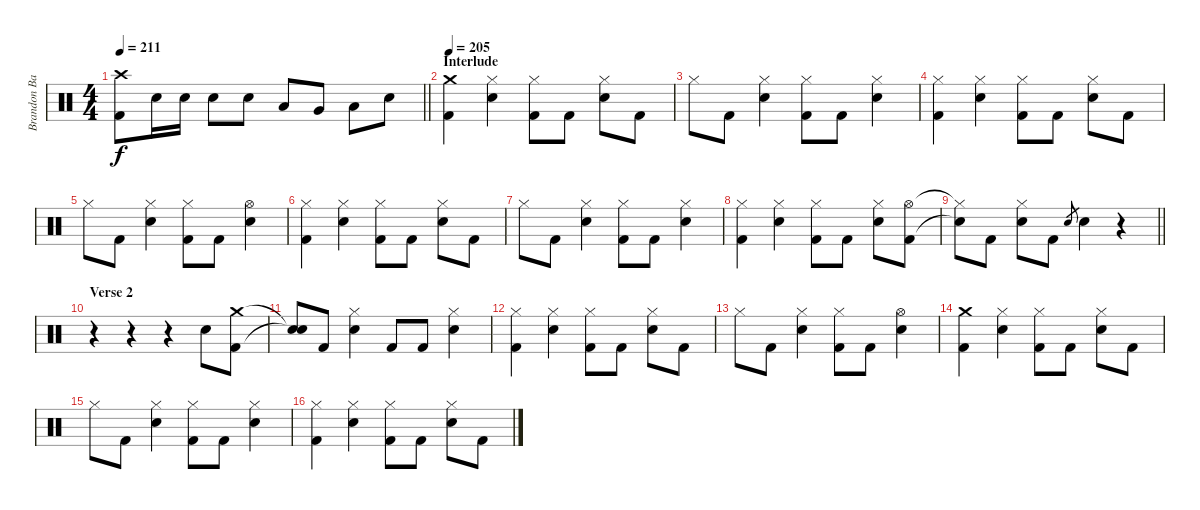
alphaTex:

\track ("Brandon Barnes - Drums" "Brandon Ba") {instrument percussion}
\staff {score}
\articulation defaults
\ts (4 4)
\tempo 211
\clef neutral
\barLineRight lightlight
\ks c
("Crash high (hit)" "Kick (hit) 2").8{dy f} "Electric Snare (hit)".16 "Electric Snare (hit)".16 "Electric Snare (hit)".8 "Electric Snare (hit)".8 "Low Tom (hit)".8 "Very Low Tom (hit)".8 "Low Floor Tom (hit)".8 "Electric Snare (hit)".8 |
\section ("" "Interlude")
\tempo 205
("Crash medium (hit)" "Kick (hit) 2").4 ("Hi-Hat (closed)" "Electric Snare (hit)").4 ("Hi-Hat (closed)" "Kick (hit) 2").8 "Kick (hit) 2".8 ("Hi-Hat (closed)" "Electric Snare (hit)").8 "Kick (hit) 2".8 |
"Hi-Hat (closed)".8 "Kick (hit) 2".8 ("Hi-Hat (closed)" "Electric Snare (hit)").4 ("Hi-Hat (closed)" "Kick (hit) 2").8 "Kick (hit) 2".8 ("Hi-Hat (closed)" "Electric Snare (hit)").4 |
("Hi-Hat (closed)" "Kick (hit) 2").4 ("Hi-Hat (closed)" "Electric Snare (hit)").4 ("Hi-Hat (closed)" "Kick (hit) 2").8 "Kick (hit) 2".8 ("Hi-Hat (closed)" "Electric Snare (hit)").8 "Kick (hit) 2".8 |
"Hi-Hat (closed)".8 "Kick (hit) 2".8 ("Hi-Hat (closed)" "Electric Snare (hit)").4 ("Hi-Hat (closed)" "Kick (hit) 2").8 "Kick (hit) 2".8 ("Hi-Hat (open)" "Electric Snare (hit)").4 |
("Hi-Hat (closed)" "Kick (hit) 2").4 ("Hi-Hat (closed)" "Electric Snare (hit)").4 ("Hi-Hat (closed)" "Kick (hit) 2").8 "Kick (hit) 2".8 ("Hi-Hat (closed)" "Electric Snare (hit)").8 "Kick (hit) 2".8 |
"Hi-Hat (closed)".8 "Kick (hit) 2".8 ("Hi-Hat (closed)" "Electric Snare (hit)").4 ("Hi-Hat (closed)" "Kick (hit) 2").8 "Kick (hit) 2".8 ("Hi-Hat (closed)" "Electric Snare (hit)").4 |
("Hi-Hat (closed)" "Kick (hit) 2").4 ("Hi-Hat (closed)" "Electric Snare (hit)").4 ("Hi-Hat (closed)" "Kick (hit) 2").8 "Kick (hit) 2".8 ("Hi-Hat (closed)" "Electric Snare (hit)").8 ("Hi-Hat (open)" "Kick (hit) 2").8 |
\barLineRight lightlight
("Hi-Hat (closed)"{t} "Snare (hit)"{t}).8 "Kick (hit) 2".8 ("Hi-Hat (closed)" "Electric Snare (hit)").8 "Kick (hit) 2".8 "Electric Snare (hit)".8{gr} "Electric Snare (hit)".4 r.4 |
\section ("" "Verse 2")
r.4 r.4 r.4 "Electric Snare (hit)".8 ("Crash medium (hit)" "Kick (hit) 2").8 |
("Snare (hit)"{t} "Snare (hit)"{t}).8 "Kick (hit) 2".8 ("Hi-Hat (closed)" "Electric Snare (hit)").4 "Kick (hit) 2".8 "Kick (hit) 2".8 ("Hi-Hat (closed)" "Electric Snare (hit)").4 |
("Hi-Hat (closed)" "Kick (hit) 2").4 ("Hi-Hat (closed)" "Electric Snare (hit)").4 ("Hi-Hat (closed)" "Kick (hit) 2").8 "Kick (hit) 2".8 ("Hi-Hat (closed)" "Electric Snare (hit)").8 "Kick (hit) 2".8 |
"Hi-Hat (closed)".8 "Kick (hit) 2".8 ("Hi-Hat (closed)" "Electric Snare (hit)").4 ("Hi-Hat (closed)" "Kick (hit) 2").8 "Kick (hit) 2".8 ("Hi-Hat (open)" "Electric Snare (hit)").4 |
("Crash medium (hit)" "Kick (hit) 2").4 ("Hi-Hat (closed)" "Electric Snare (hit)").4 ("Hi-Hat (closed)" "Kick (hit) 2").8 "Kick (hit) 2".8 ("Hi-Hat (closed)" "Electric Snare (hit)").8 "Kick (hit) 2".8 |
"Hi-Hat (closed)".8 "Kick (hit) 2".8 ("Hi-Hat (closed)" "Electric Snare (hit)").4 ("Hi-Hat (closed)" "Kick (hit) 2").8 "Kick (hit) 2".8 ("Hi-Hat (closed)" "Electric Snare (hit)").4 |
("Hi-Hat (closed)" "Kick (hit) 2").4 ("Hi-Hat (closed)" "Electric Snare (hit)").4 ("Hi-Hat (closed)" "Kick (hit) 2").8 "Kick (hit) 2".8 ("Hi-Hat (closed)" "Electric Snare (hit)").8 "Kick (hit) 2".8
